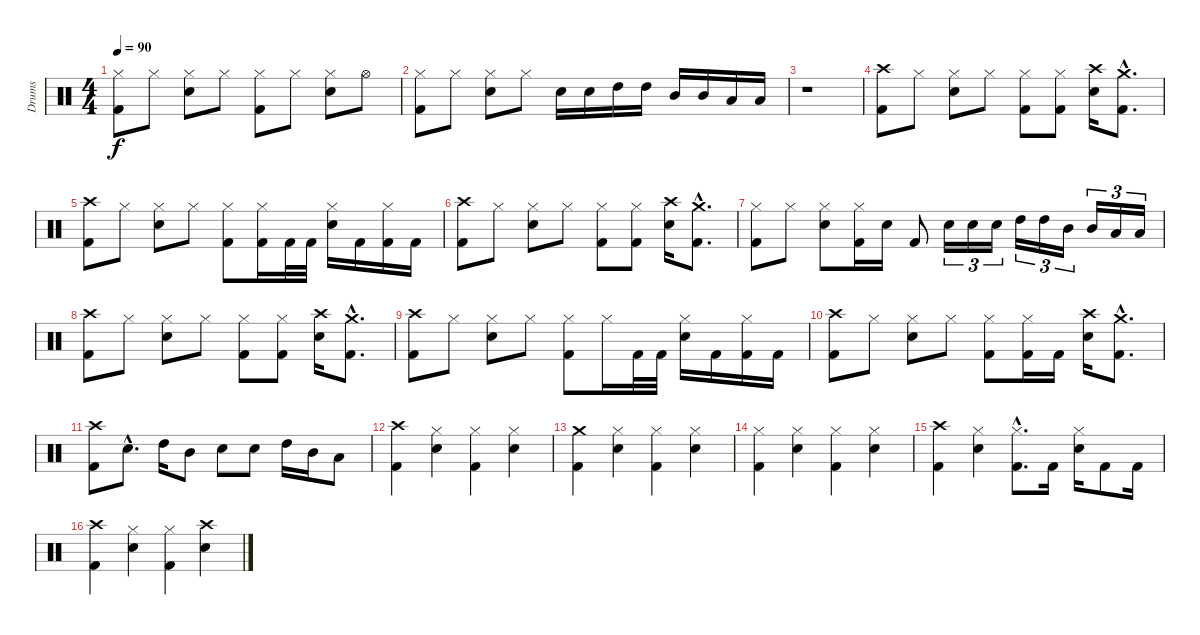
\track ("Drums" "Drums") {instrument percussion}
\staff {score}
\articulation defaults
\ts (4 4)
\tempo 90
\clef neutral
\ks c
("Hi-Hat (closed)" "Kick (hit) 2").8{dy f} "Hi-Hat (closed)".8 ("Hi-Hat (closed)" "Snare (hit) 2").8 "Hi-Hat (closed)".8 ("Hi-Hat (closed)" "Kick (hit) 2").8 "Hi-Hat (closed)".8 ("Hi-Hat (closed)" "Snare (hit) 2").8 "Hi-Hat (open)".8 |
("Hi-Hat (closed)" "Kick (hit) 2").8 "Hi-Hat (closed)".8 ("Hi-Hat (closed)" "Snare (hit) 2").8 "Hi-Hat (closed)".8 "Snare (hit) 2".16 "Snare (hit) 2".16 "High Tom (hit)".16 "High Tom (hit)".16 "Mid Tom (hit)".16 "Mid Tom (hit)".16 "Low Tom (hit)".16 "Low Tom (hit)".16 |
r.1 |
("Crash high (hit)" "Kick (hit) 2").8 "Hi-Hat (closed)".8 ("Hi-Hat (closed)" "Snare (hit) 2").8 "Hi-Hat (closed)".8 ("Hi-Hat (closed)" "Kick (hit) 2").8 ("Hi-Hat (closed)" "Kick (hit) 2").8 ("Crash high (hit)" "Snare (hit) 2").16 ("Crash medium (hit)"{hac} "Kick (hit) 2"{hac}).8{d} |
("Crash high (hit)" "Kick (hit) 2").8 "Hi-Hat (closed)".8 ("Hi-Hat (closed)" "Snare (hit) 2").8 "Hi-Hat (closed)".8 ("Hi-Hat (closed)" "Kick (hit) 2").8 ("Hi-Hat (closed)" "Kick (hit) 2").16 "Kick (hit) 2".32 "Kick (hit) 2".32 ("Hi-Hat (closed)" "Snare (hit) 2").16 "Kick (hit) 2".16 ("Hi-Hat (closed)" "Kick (hit) 2").16 "Kick (hit) 2".16 |
("Crash high (hit)" "Kick (hit) 2").8 "Hi-Hat (closed)".8 ("Hi-Hat (closed)" "Snare (hit) 2").8 "Hi-Hat (closed)".8 ("Hi-Hat (closed)" "Kick (hit) 2").8 ("Hi-Hat (closed)" "Kick (hit) 2").8 ("Crash high (hit)" "Snare (hit) 2").16 ("Crash medium (hit)"{hac} "Kick (hit) 2"{hac}).8{d} |
("Hi-Hat (closed)" "Kick (hit) 2").8 "Hi-Hat (closed)".8 ("Hi-Hat (closed)" "Snare (hit) 2").8 ("Hi-Hat (closed)" "Kick (hit) 2").16 "Snare (hit) 2".16 "Kick (hit) 2".8 "Snare (hit) 2".16{tu (3 2)} "Snare (hit) 2".16{tu (3 2)} "Snare (hit) 2".16{tu (3 2)} "High Tom (hit)".16{tu (3 2)} "High Tom (hit)".16{tu (3 2)} "Mid Tom (hit)".16{tu (3 2)} "Mid Tom (hit)".16{tu (3 2)} "Low Tom (hit)".16{tu (3 2)} "Low Tom (hit)".16{tu (3 2)} |
("Crash high (hit)" "Kick (hit) 2").8 "Hi-Hat (closed)".8 ("Hi-Hat (closed)" "Snare (hit) 2").8 "Hi-Hat (closed)".8 ("Hi-Hat (closed)" "Kick (hit) 2").8 ("Hi-Hat (closed)" "Kick (hit) 2").8 ("Crash high (hit)" "Snare (hit) 2").16 ("Crash medium (hit)"{hac} "Kick (hit) 2"{hac}).8{d} |
("Crash high (hit)" "Kick (hit) 2").8 "Hi-Hat (closed)".8 ("Hi-Hat (closed)" "Snare (hit) 2").8 "Hi-Hat (closed)".8 ("Hi-Hat (closed)" "Kick (hit) 2").8 "Hi-Hat (closed)".16 "Kick (hit) 2".32 "Kick (hit) 2".32 ("Hi-Hat (closed)" "Snare (hit) 2").16 "Kick (hit) 2".16 ("Hi-Hat (closed)" "Kick (hit) 2").16 "Kick (hit) 2".16 |
("Crash high (hit)" "Kick (hit) 2").8 "Hi-Hat (closed)".8 ("Hi-Hat (closed)" "Snare (hit) 2").8 "Hi-Hat (closed)".8 ("Hi-Hat (closed)" "Kick (hit) 2").8 ("Hi-Hat (closed)" "Kick (hit) 2").16 "Kick (hit) 2".16 ("Crash high (hit)" "Snare (hit) 2").16 ("Crash medium (hit)"{hac} "Kick (hit) 2"{hac}).8{d} |
("Crash high (hit)" "Kick (hit) 2").8 "Snare (hit) 2"{hac}.8{d} "High Tom (hit)".16 "Mid Tom (hit)".8 "Snare (hit) 2".8 "Snare (hit) 2".8 "High Tom (hit)".16 "Mid Tom (hit)".16 "Low Tom (hit)".8 |
("Crash high (hit)" "Kick (hit) 2").4 ("Hi-Hat (closed)" "Snare (hit) 2").4 ("Hi-Hat (closed)" "Kick (hit) 2").4 ("Hi-Hat (closed)" "Snare (hit) 2").4 |
("Crash medium (hit)" "Kick (hit) 2").4 ("Hi-Hat (closed)" "Snare (hit) 2").4 ("Hi-Hat (closed)" "Kick (hit) 2").4 ("Hi-Hat (closed)" "Snare (hit) 2").4 |
("Hi-Hat (closed)" "Kick (hit) 2").4 ("Hi-Hat (closed)" "Snare (hit) 2").4 ("Hi-Hat (closed)" "Kick (hit) 2").4 ("Hi-Hat (closed)" "Snare (hit) 2").4 |
("Crash high (hit)" "Kick (hit) 2").4 ("Hi-Hat (closed)" "Snare (hit) 2").4 ("Hi-Hat (closed)"{hac} "Kick (hit) 2"{hac}).8{d} "Kick (hit) 2".16 ("Hi-Hat (closed)" "Snare (hit) 2").16 "Kick (hit) 2".8 "Kick (hit) 2".16 |
("Crash high (hit)" "Kick (hit) 2").4 ("Hi-Hat (closed)" "Snare (hit) 2").4 ("Hi-Hat (closed)" "Kick (hit) 2").4 ("Crash high (hit)" "Snare (hit) 2").4
